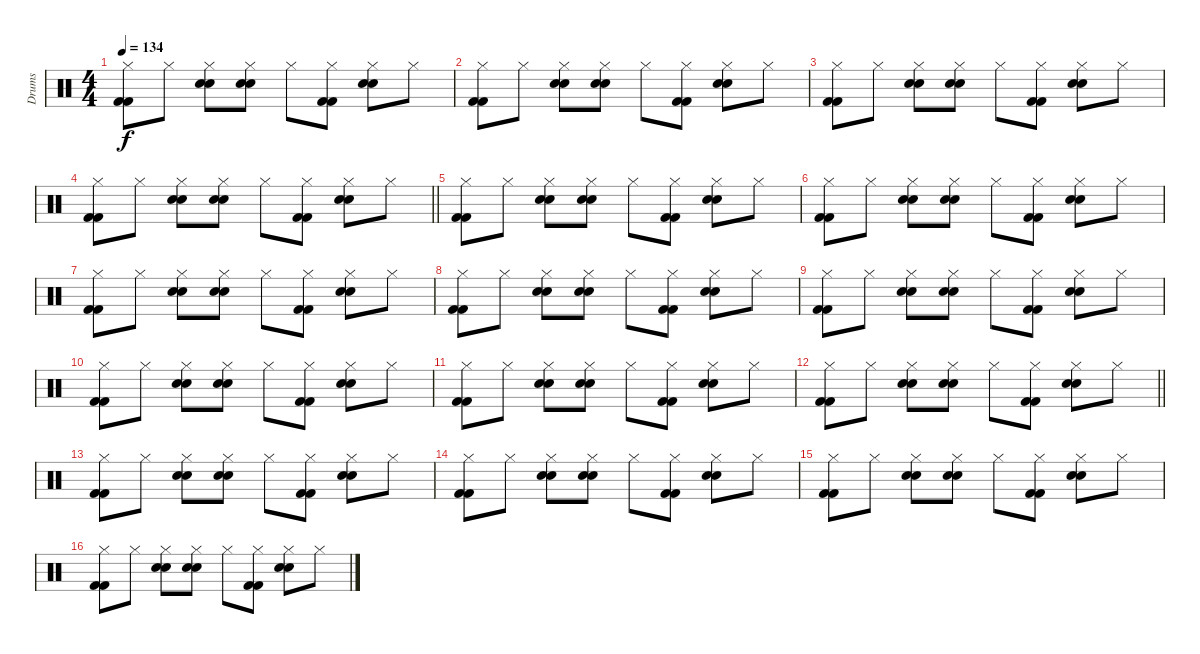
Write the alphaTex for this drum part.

\track ("Drums" "Drums") {instrument percussion}
\staff {score}
\articulation defaults
\ts (4 4)
\tempo 134
\clef neutral
\ks c
("Kick (hit) 2" "Kick (hit) 2" "Hi-Hat (closed)").8{dy f} "Hi-Hat (closed)".8 ("Snare (hit) 2" "Hi-Hat (closed)" "Electric Snare (hit)").8 ("Snare (hit) 2" "Hi-Hat (closed)" "Electric Snare (hit)").8 "Hi-Hat (closed)".8 ("Kick (hit) 2" "Kick (hit) 2" "Hi-Hat (closed)").8 ("Snare (hit) 2" "Hi-Hat (closed)" "Electric Snare (hit)").8 "Hi-Hat (closed)".8 |
("Kick (hit) 2" "Kick (hit) 2" "Hi-Hat (closed)").8 "Hi-Hat (closed)".8 ("Snare (hit) 2" "Hi-Hat (closed)" "Electric Snare (hit)").8 ("Snare (hit) 2" "Hi-Hat (closed)" "Electric Snare (hit)").8 "Hi-Hat (closed)".8 ("Kick (hit) 2" "Kick (hit) 2" "Hi-Hat (closed)").8 ("Snare (hit) 2" "Hi-Hat (closed)" "Electric Snare (hit)").8 "Hi-Hat (closed)".8 |
("Kick (hit) 2" "Kick (hit) 2" "Hi-Hat (closed)").8 "Hi-Hat (closed)".8 ("Snare (hit) 2" "Hi-Hat (closed)" "Electric Snare (hit)").8 ("Snare (hit) 2" "Hi-Hat (closed)" "Electric Snare (hit)").8 "Hi-Hat (closed)".8 ("Kick (hit) 2" "Kick (hit) 2" "Hi-Hat (closed)").8 ("Snare (hit) 2" "Hi-Hat (closed)" "Electric Snare (hit)").8 "Hi-Hat (closed)".8 |
\barLineRight lightlight
("Kick (hit) 2" "Kick (hit) 2" "Hi-Hat (closed)").8 "Hi-Hat (closed)".8 ("Snare (hit) 2" "Hi-Hat (closed)" "Electric Snare (hit)").8 ("Snare (hit) 2" "Hi-Hat (closed)" "Electric Snare (hit)").8 "Hi-Hat (closed)".8 ("Kick (hit) 2" "Kick (hit) 2" "Hi-Hat (closed)").8 ("Snare (hit) 2" "Hi-Hat (closed)" "Electric Snare (hit)").8 "Hi-Hat (closed)".8 |
("Kick (hit) 2" "Kick (hit) 2" "Hi-Hat (closed)").8 "Hi-Hat (closed)".8 ("Snare (hit) 2" "Hi-Hat (closed)" "Electric Snare (hit)").8 ("Snare (hit) 2" "Hi-Hat (closed)" "Electric Snare (hit)").8 "Hi-Hat (closed)".8 ("Kick (hit) 2" "Kick (hit) 2" "Hi-Hat (closed)").8 ("Snare (hit) 2" "Hi-Hat (closed)" "Electric Snare (hit)").8 "Hi-Hat (closed)".8 |
("Kick (hit) 2" "Kick (hit) 2" "Hi-Hat (closed)").8 "Hi-Hat (closed)".8 ("Snare (hit) 2" "Hi-Hat (closed)" "Electric Snare (hit)").8 ("Snare (hit) 2" "Hi-Hat (closed)" "Electric Snare (hit)").8 "Hi-Hat (closed)".8 ("Kick (hit) 2" "Kick (hit) 2" "Hi-Hat (closed)").8 ("Snare (hit) 2" "Hi-Hat (closed)" "Electric Snare (hit)").8 "Hi-Hat (closed)".8 |
("Kick (hit) 2" "Kick (hit) 2" "Hi-Hat (closed)").8 "Hi-Hat (closed)".8 ("Snare (hit) 2" "Hi-Hat (closed)" "Electric Snare (hit)").8 ("Snare (hit) 2" "Hi-Hat (closed)" "Electric Snare (hit)").8 "Hi-Hat (closed)".8 ("Kick (hit) 2" "Kick (hit) 2" "Hi-Hat (closed)").8 ("Snare (hit) 2" "Hi-Hat (closed)" "Electric Snare (hit)").8 "Hi-Hat (closed)".8 |
("Kick (hit) 2" "Kick (hit) 2" "Hi-Hat (closed)").8 "Hi-Hat (closed)".8 ("Snare (hit) 2" "Hi-Hat (closed)" "Electric Snare (hit)").8 ("Snare (hit) 2" "Hi-Hat (closed)" "Electric Snare (hit)").8 "Hi-Hat (closed)".8 ("Kick (hit) 2" "Kick (hit) 2" "Hi-Hat (closed)").8 ("Snare (hit) 2" "Hi-Hat (closed)" "Electric Snare (hit)").8 "Hi-Hat (closed)".8 |
("Kick (hit) 2" "Kick (hit) 2" "Hi-Hat (closed)").8 "Hi-Hat (closed)".8 ("Snare (hit) 2" "Hi-Hat (closed)" "Electric Snare (hit)").8 ("Snare (hit) 2" "Hi-Hat (closed)" "Electric Snare (hit)").8 "Hi-Hat (closed)".8 ("Kick (hit) 2" "Kick (hit) 2" "Hi-Hat (closed)").8 ("Snare (hit) 2" "Hi-Hat (closed)" "Electric Snare (hit)").8 "Hi-Hat (closed)".8 |
("Kick (hit) 2" "Kick (hit) 2" "Hi-Hat (closed)").8 "Hi-Hat (closed)".8 ("Snare (hit) 2" "Hi-Hat (closed)" "Electric Snare (hit)").8 ("Snare (hit) 2" "Hi-Hat (closed)" "Electric Snare (hit)").8 "Hi-Hat (closed)".8 ("Kick (hit) 2" "Kick (hit) 2" "Hi-Hat (closed)").8 ("Snare (hit) 2" "Hi-Hat (closed)" "Electric Snare (hit)").8 "Hi-Hat (closed)".8 |
("Kick (hit) 2" "Kick (hit) 2" "Hi-Hat (closed)").8 "Hi-Hat (closed)".8 ("Snare (hit) 2" "Hi-Hat (closed)" "Electric Snare (hit)").8 ("Snare (hit) 2" "Hi-Hat (closed)" "Electric Snare (hit)").8 "Hi-Hat (closed)".8 ("Kick (hit) 2" "Kick (hit) 2" "Hi-Hat (closed)").8 ("Snare (hit) 2" "Hi-Hat (closed)" "Electric Snare (hit)").8 "Hi-Hat (closed)".8 |
\barLineRight lightlight
("Kick (hit) 2" "Kick (hit) 2" "Hi-Hat (closed)").8 "Hi-Hat (closed)".8 ("Snare (hit) 2" "Hi-Hat (closed)" "Electric Snare (hit)").8 ("Snare (hit) 2" "Hi-Hat (closed)" "Electric Snare (hit)").8 "Hi-Hat (closed)".8 ("Kick (hit) 2" "Kick (hit) 2" "Hi-Hat (closed)").8 ("Snare (hit) 2" "Hi-Hat (closed)" "Electric Snare (hit)").8 "Hi-Hat (closed)".8 |
("Kick (hit) 2" "Kick (hit) 2" "Hi-Hat (closed)").8 "Hi-Hat (closed)".8 ("Snare (hit) 2" "Hi-Hat (closed)" "Electric Snare (hit)").8 ("Snare (hit) 2" "Hi-Hat (closed)" "Electric Snare (hit)").8 "Hi-Hat (closed)".8 ("Kick (hit) 2" "Kick (hit) 2" "Hi-Hat (closed)").8 ("Snare (hit) 2" "Hi-Hat (closed)" "Electric Snare (hit)").8 "Hi-Hat (closed)".8 |
("Kick (hit) 2" "Kick (hit) 2" "Hi-Hat (closed)").8 "Hi-Hat (closed)".8 ("Snare (hit) 2" "Hi-Hat (closed)" "Electric Snare (hit)").8 ("Snare (hit) 2" "Hi-Hat (closed)" "Electric Snare (hit)").8 "Hi-Hat (closed)".8 ("Kick (hit) 2" "Kick (hit) 2" "Hi-Hat (closed)").8 ("Snare (hit) 2" "Hi-Hat (closed)" "Electric Snare (hit)").8 "Hi-Hat (closed)".8 |
("Kick (hit) 2" "Kick (hit) 2" "Hi-Hat (closed)").8 "Hi-Hat (closed)".8 ("Snare (hit) 2" "Hi-Hat (closed)" "Electric Snare (hit)").8 ("Snare (hit) 2" "Hi-Hat (closed)" "Electric Snare (hit)").8 "Hi-Hat (closed)".8 ("Kick (hit) 2" "Kick (hit) 2" "Hi-Hat (closed)").8 ("Snare (hit) 2" "Hi-Hat (closed)" "Electric Snare (hit)").8 "Hi-Hat (closed)".8 |
("Kick (hit) 2" "Kick (hit) 2" "Hi-Hat (closed)").8 "Hi-Hat (closed)".8 ("Snare (hit) 2" "Hi-Hat (closed)" "Electric Snare (hit)").8 ("Snare (hit) 2" "Hi-Hat (closed)" "Electric Snare (hit)").8 "Hi-Hat (closed)".8 ("Kick (hit) 2" "Kick (hit) 2" "Hi-Hat (closed)").8 ("Snare (hit) 2" "Hi-Hat (closed)" "Electric Snare (hit)").8 "Hi-Hat (closed)".8
